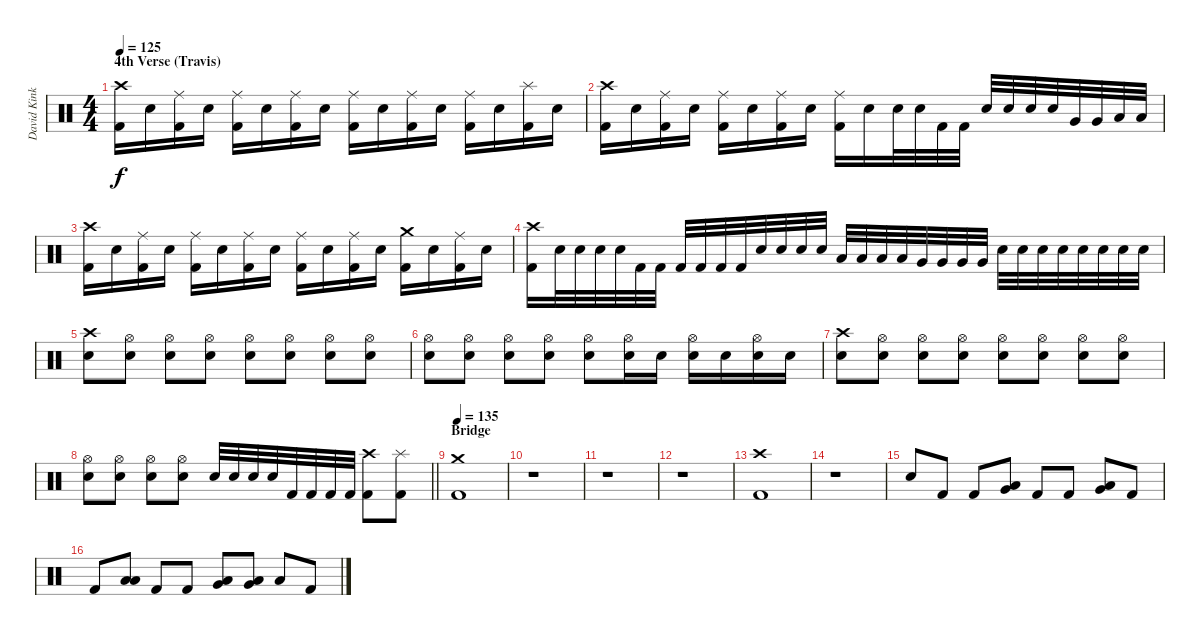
\track ("David Kinkade" "David Kink") {instrument percussion}
\staff {score}
\articulation defaults
\ts (4 4)
\section ("" "4th Verse (Travis)")
\tempo 125
\clef neutral
\ks c
("Crash high (hit)" "Kick (hit) 2").16{dy f} "Snare (hit) 2".16 ("Ride (middle)" "Kick (hit) 2").16 "Snare (hit) 2".16 ("Ride (middle)" "Kick (hit) 2").16 "Snare (hit) 2".16 ("Ride (middle)" "Kick (hit) 2").16 "Snare (hit) 2".16 ("Ride (middle)" "Kick (hit) 2").16 "Snare (hit) 2".16 ("Ride (middle)" "Kick (hit) 2").16 "Snare (hit) 2".16 ("Ride (middle)" "Kick (hit) 2").16 "Snare (hit) 2".16 ("Splash (hit)" "Kick (hit) 2").16 "Snare (hit) 2".16 |
("Crash high (hit)" "Kick (hit) 2").16 "Snare (hit) 2".16 ("Ride (middle)" "Kick (hit) 2").16 "Snare (hit) 2".16 ("Ride (middle)" "Kick (hit) 2").16 "Snare (hit) 2".16 ("Ride (middle)" "Kick (hit) 2").16 "Snare (hit) 2".16 ("Ride (middle)" "Kick (hit) 2").16 "Snare (hit) 2".16 "Snare (hit) 2".32 "Snare (hit) 2".32 "Kick (hit) 2".32 "Kick (hit) 2".32 "Snare (hit) 2".32 "Snare (hit) 2".32 "Snare (hit) 2".32 "Snare (hit) 2".32 "Very Low Tom (hit)".32 "Very Low Tom (hit)".32 "Low Floor Tom (hit)".32 "Low Floor Tom (hit)".32 |
("Crash high (hit)" "Kick (hit) 2").16 "Snare (hit) 2".16 ("Ride (middle)" "Kick (hit) 2").16 "Snare (hit) 2".16 ("Ride (middle)" "Kick (hit) 2").16 "Snare (hit) 2".16 ("Ride (middle)" "Kick (hit) 2").16 "Snare (hit) 2".16 ("Ride (middle)" "Kick (hit) 2").16 "Snare (hit) 2".16 ("Ride (middle)" "Kick (hit) 2").16 "Snare (hit) 2".16 ("Crash medium (hit)" "Kick (hit) 2").16 "Snare (hit) 2".16 ("Ride (middle)" "Kick (hit) 2").16 "Snare (hit) 2".16 |
("Crash high (hit)" "Kick (hit) 2").16 "Snare (hit) 2".32 "Snare (hit) 2".32 "Snare (hit) 2".32 "Snare (hit) 2".32 "Kick (hit) 2".32 "Kick (hit) 2".32 "Kick (hit) 2".32 "Kick (hit) 2".32 "Kick (hit) 2".32 "Kick (hit) 2".32 "Snare (hit) 2".32 "Snare (hit) 2".32 "Snare (hit) 2".32 "Snare (hit) 2".32 "Low Tom (hit)".32 "Low Tom (hit)".32 "Low Tom (hit)".32 "Low Tom (hit)".32 "Very Low Tom (hit)".32 "Very Low Tom (hit)".32 "Very Low Tom (hit)".32 "Very Low Tom (hit)".32 "Snare (hit) 2".32 "Snare (hit) 2".32 "Snare (hit) 2".32 "Snare (hit) 2".32 "Snare (hit) 2".32 "Snare (hit) 2".32 "Snare (hit) 2".32 "Snare (hit) 2".32 |
("Crash high (hit)" "Snare (hit) 2").8 ("Hi-Hat (open)" "Snare (hit) 2").8 ("Hi-Hat (open)" "Snare (hit) 2").8 ("Hi-Hat (open)" "Snare (hit) 2").8 ("Hi-Hat (open)" "Snare (hit) 2").8 ("Hi-Hat (open)" "Snare (hit) 2").8 ("Hi-Hat (open)" "Snare (hit) 2").8 ("Hi-Hat (open)" "Snare (hit) 2").8 |
("Hi-Hat (open)" "Snare (hit) 2").8 ("Hi-Hat (open)" "Snare (hit) 2").8 ("Hi-Hat (open)" "Snare (hit) 2").8 ("Hi-Hat (open)" "Snare (hit) 2").8 ("Hi-Hat (open)" "Snare (hit) 2").8 ("Hi-Hat (open)" "Snare (hit) 2").16 "Snare (hit) 2".16 ("Hi-Hat (open)" "Snare (hit) 2").16 "Snare (hit) 2".16 ("Hi-Hat (open)" "Snare (hit) 2").16 "Snare (hit) 2".16 |
("Crash high (hit)" "Snare (hit) 2").8 ("Hi-Hat (open)" "Snare (hit) 2").8 ("Hi-Hat (open)" "Snare (hit) 2").8 ("Hi-Hat (open)" "Snare (hit) 2").8 ("Hi-Hat (open)" "Snare (hit) 2").8 ("Hi-Hat (open)" "Snare (hit) 2").8 ("Hi-Hat (open)" "Snare (hit) 2").8 ("Hi-Hat (open)" "Snare (hit) 2").8 |
\barLineRight lightlight
("Hi-Hat (open)" "Snare (hit) 2").8 ("Hi-Hat (open)" "Snare (hit) 2").8 ("Hi-Hat (open)" "Snare (hit) 2").8 ("Hi-Hat (open)" "Snare (hit) 2").8 "Snare (hit) 2".32 "Snare (hit) 2".32 "Snare (hit) 2".32 "Snare (hit) 2".32 "Kick (hit) 2".32 "Kick (hit) 2".32 "Kick (hit) 2".32 "Kick (hit) 2".32 ("Crash high (hit)" "Kick (hit) 2").8 ("Splash (hit)" "Kick (hit) 2").8 |
\section ("" "Bridge")
\tempo 135
("Crash medium (hit)" "Kick (hit) 2").1 |
r.1 |
r.1 |
r.1 |
("Crash high (hit)" "Kick (hit) 2").1 |
r.1 |
"Snare (hit) 2".8 "Kick (hit) 2".8 "Kick (hit) 2".8 ("Low Tom (hit)" "Very Low Tom (hit)").8 "Kick (hit) 2".8 "Kick (hit) 2".8 ("Very Low Tom (hit)" "Low Floor Tom (hit)").8 "Kick (hit) 2".8 |
"Kick (hit) 2".8 ("Low Tom (hit)" "Low Floor Tom (hit)").8 "Kick (hit) 2".8 "Kick (hit) 2".8 ("Very Low Tom (hit)" "Low Floor Tom (hit)").8 ("Very Low Tom (hit)" "Low Floor Tom (hit)").8 "Low Floor Tom (hit)".8 "Kick (hit) 2".8
